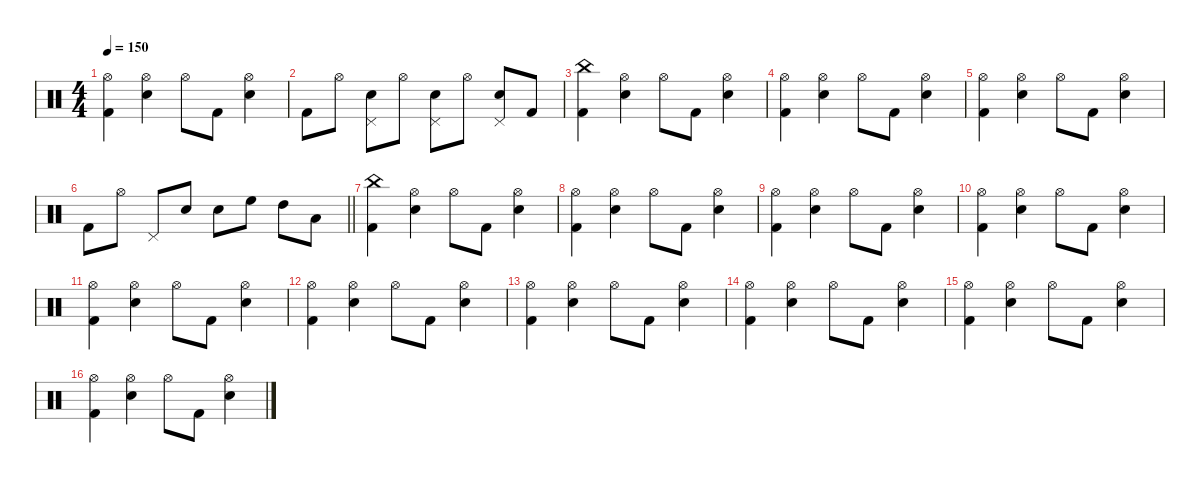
\defaultSystemsLayout 4
\hideDynamics
\bracketExtendMode nobrackets
\singleTrackTrackNamePolicy hidden
\multiTrackTrackNamePolicy hidden
\firstSystemTrackNameMode fullname
\otherSystemsTrackNameOrientation horizontal
\track ("Percussions" "drm.") {defaultSystemsLayout 4 instrument percussion}
\staff {score}
\articulation defaults
\ts (4 4)
\tempo 150
\clef neutral
\ks c
("Hi-Hat (open)" "Kick (hit) 2").4{dy f beam Down} ("Hi-Hat (open)" "Snare (hit) 2").4{beam Down} "Hi-Hat (open)".8{beam Down} "Kick (hit) 2".8{dy fff beam Down} ("Hi-Hat (open)" "Snare (hit) 2").4{dy f beam Down} |
"Kick (hit) 2".8{dy fff beam Down} "Hi-Hat (open)".8{dy f beam Down} ("Pedal Hi-Hat (hit)" "Snare (hit) 2").8{beam Down} "Hi-Hat (open)".8{beam Down} ("Pedal Hi-Hat (hit)" "Snare (hit) 2").8{beam Down} "Hi-Hat (open)".8{beam Down} ("Pedal Hi-Hat (hit)" "Snare (hit) 2").8{beam Up} "Kick (hit) 2".8{dy fff beam Up} |
("China (hit)" "Kick (hit) 2").4{dy f beam Down} ("Hi-Hat (open)" "Snare (hit) 2").4{beam Down} "Hi-Hat (open)".8{beam Down} "Kick (hit) 2".8{dy fff beam Down} ("Hi-Hat (open)" "Snare (hit) 2").4{dy f beam Down} |
("Hi-Hat (open)" "Kick (hit) 2").4{beam Down} ("Hi-Hat (open)" "Snare (hit) 2").4{beam Down} "Hi-Hat (open)".8{beam Down} "Kick (hit) 2".8{dy fff beam Down} ("Hi-Hat (open)" "Snare (hit) 2").4{dy f beam Down} |
("Hi-Hat (open)" "Kick (hit) 2").4{beam Down} ("Hi-Hat (open)" "Snare (hit) 2").4{beam Down} "Hi-Hat (open)".8{beam Down} "Kick (hit) 2".8{dy fff beam Down} ("Hi-Hat (open)" "Snare (hit) 2").4{dy f beam Down} |
\barLineRight lightlight "Kick (hit) 2".8{dy fff beam Down} "Hi-Hat (open)".8{dy f beam Down} "Pedal Hi-Hat (hit)".8{beam Up} "Snare (hit) 2".8{dy fff beam Up} "Snare (hit) 2".8{beam Down} "High Floor Tom (hit)".8{dy f beam Down} "High Tom (hit)".8{beam Down} "Low Tom (hit)".8{beam Down}
|
("China (hit)" "Kick (hit) 2").4{beam Down} ("Hi-Hat (open)" "Snare (hit) 2").4{beam Down} "Hi-Hat (open)".8{beam Down} "Kick (hit) 2".8{dy fff beam Down} ("Hi-Hat (open)" "Snare (hit) 2").4{dy f beam Down} |
("Hi-Hat (open)" "Kick (hit) 2").4{beam Down} ("Hi-Hat (open)" "Snare (hit) 2").4{beam Down} "Hi-Hat (open)".8{beam Down} "Kick (hit) 2".8{dy fff beam Down} ("Hi-Hat (open)" "Snare (hit) 2").4{dy f beam Down} |
("Hi-Hat (open)" "Kick (hit) 2").4{beam Down} ("Hi-Hat (open)" "Snare (hit) 2").4{beam Down} "Hi-Hat (open)".8{beam Down} "Kick (hit) 2".8{dy fff beam Down} ("Hi-Hat (open)" "Snare (hit) 2").4{dy f beam Down} |
("Hi-Hat (open)" "Kick (hit) 2").4{beam Down} ("Hi-Hat (open)" "Snare (hit) 2").4{beam Down} "Hi-Hat (open)".8{beam Down} "Kick (hit) 2".8{dy fff beam Down} ("Hi-Hat (open)" "Snare (hit) 2").4{dy f beam Down} |
("Hi-Hat (open)" "Kick (hit) 2").4{beam Down} ("Hi-Hat (open)" "Snare (hit) 2").4{beam Down} "Hi-Hat (open)".8{beam Down} "Kick (hit) 2".8{dy fff beam Down} ("Hi-Hat (open)" "Snare (hit) 2").4{dy f beam Down} |
("Hi-Hat (open)" "Kick (hit) 2").4{beam Down} ("Hi-Hat (open)" "Snare (hit) 2").4{beam Down} "Hi-Hat (open)".8{beam Down} "Kick (hit) 2".8{dy fff beam Down} ("Hi-Hat (open)" "Snare (hit) 2").4{dy f beam Down} |
("Hi-Hat (open)" "Kick (hit) 2").4{beam Down} ("Hi-Hat (open)" "Snare (hit) 2").4{beam Down} "Hi-Hat (open)".8{beam Down} "Kick (hit) 2".8{dy fff beam Down} ("Hi-Hat (open)" "Snare (hit) 2").4{dy f beam Down} |
("Hi-Hat (open)" "Kick (hit) 2").4{beam Down} ("Hi-Hat (open)" "Snare (hit) 2").4{beam Down} "Hi-Hat (open)".8{beam Down} "Kick (hit) 2".8{dy fff beam Down} ("Hi-Hat (open)" "Snare (hit) 2").4{dy f beam Down} |
("Hi-Hat (open)" "Kick (hit) 2").4{beam Down} ("Hi-Hat (open)" "Snare (hit) 2").4{beam Down} "Hi-Hat (open)".8{beam Down} "Kick (hit) 2".8{dy fff beam Down} ("Hi-Hat (open)" "Snare (hit) 2").4{dy f beam Down} |
("Hi-Hat (open)" "Kick (hit) 2").4{beam Down} ("Hi-Hat (open)" "Snare (hit) 2").4{beam Down} "Hi-Hat (open)".8{beam Down} "Kick (hit) 2".8{dy fff beam Down} ("Hi-Hat (open)" "Snare (hit) 2").4{dy f beam Down}
